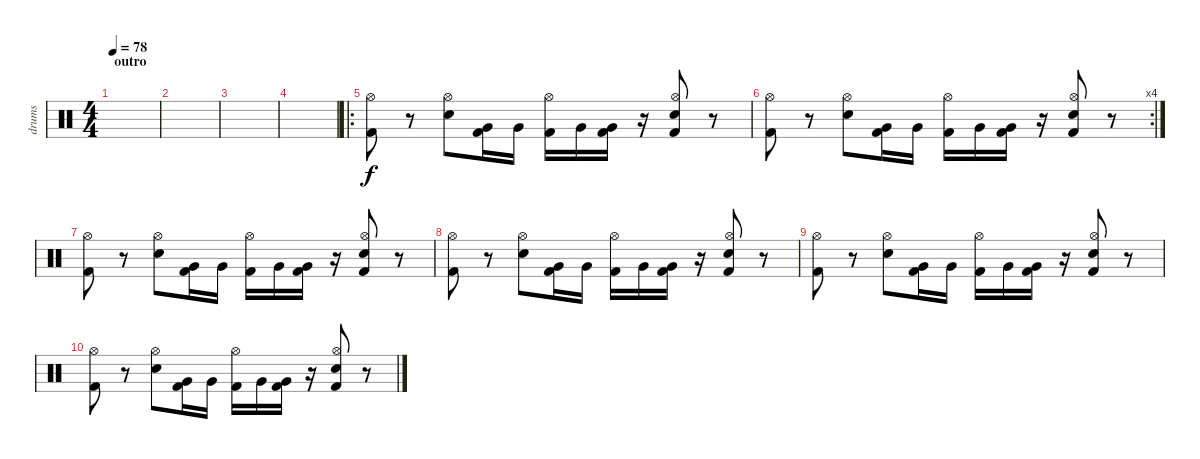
\track ("drums" "drums") {instrument percussion}
\staff {score}
\articulation defaults
\ts (4 4)
\section ("" "outro")
\tempo 78
\clef neutral
\ks c
|
|
|
|
\ro
("Kick (hit) 2" "Hi-Hat (open)").8 r.8 ("Electric Snare (hit)" "Hi-Hat (open)").8 ("Kick (hit) 2" "Very Low Tom (hit)").16 "Very Low Tom (hit)".16 ("Kick (hit) 2" "Hi-Hat (open)").16 "Very Low Tom (hit)".16 ("Kick (hit) 2" "Very Low Tom (hit)").16 r.16 ("Kick (hit) 2" "Electric Snare (hit)" "Hi-Hat (open)").8 r.8 |
\rc 4
("Kick (hit) 2" "Hi-Hat (open)").8 r.8 ("Electric Snare (hit)" "Hi-Hat (open)").8 ("Kick (hit) 2" "Very Low Tom (hit)").16 "Very Low Tom (hit)".16 ("Kick (hit) 2" "Hi-Hat (open)").16 "Very Low Tom (hit)".16 ("Kick (hit) 2" "Very Low Tom (hit)").16 r.16 ("Kick (hit) 2" "Electric Snare (hit)" "Hi-Hat (open)").8 r.8 |
("Kick (hit) 2" "Hi-Hat (open)").8 r.8 ("Electric Snare (hit)" "Hi-Hat (open)").8 ("Kick (hit) 2" "Very Low Tom (hit)").16 "Very Low Tom (hit)".16 ("Kick (hit) 2" "Hi-Hat (open)").16 "Very Low Tom (hit)".16 ("Kick (hit) 2" "Very Low Tom (hit)").16 r.16 ("Kick (hit) 2" "Electric Snare (hit)" "Hi-Hat (open)").8 r.8 |
("Kick (hit) 2" "Hi-Hat (open)").8 r.8 ("Electric Snare (hit)" "Hi-Hat (open)").8 ("Kick (hit) 2" "Very Low Tom (hit)").16 "Very Low Tom (hit)".16 ("Kick (hit) 2" "Hi-Hat (open)").16 "Very Low Tom (hit)".16 ("Kick (hit) 2" "Very Low Tom (hit)").16 r.16 ("Kick (hit) 2" "Electric Snare (hit)" "Hi-Hat (open)").8 r.8 |
("Kick (hit) 2" "Hi-Hat (open)").8 r.8 ("Electric Snare (hit)" "Hi-Hat (open)").8 ("Kick (hit) 2" "Very Low Tom (hit)").16 "Very Low Tom (hit)".16 ("Kick (hit) 2" "Hi-Hat (open)").16 "Very Low Tom (hit)".16 ("Kick (hit) 2" "Very Low Tom (hit)").16 r.16 ("Kick (hit) 2" "Electric Snare (hit)" "Hi-Hat (open)").8 r.8 |
("Kick (hit) 2" "Hi-Hat (open)").8 r.8 ("Electric Snare (hit)" "Hi-Hat (open)").8 ("Kick (hit) 2" "Very Low Tom (hit)").16 "Very Low Tom (hit)".16 ("Kick (hit) 2" "Hi-Hat (open)").16 "Very Low Tom (hit)".16 ("Kick (hit) 2" "Very Low Tom (hit)").16 r.16 ("Kick (hit) 2" "Electric Snare (hit)" "Hi-Hat (open)").8 r.8
